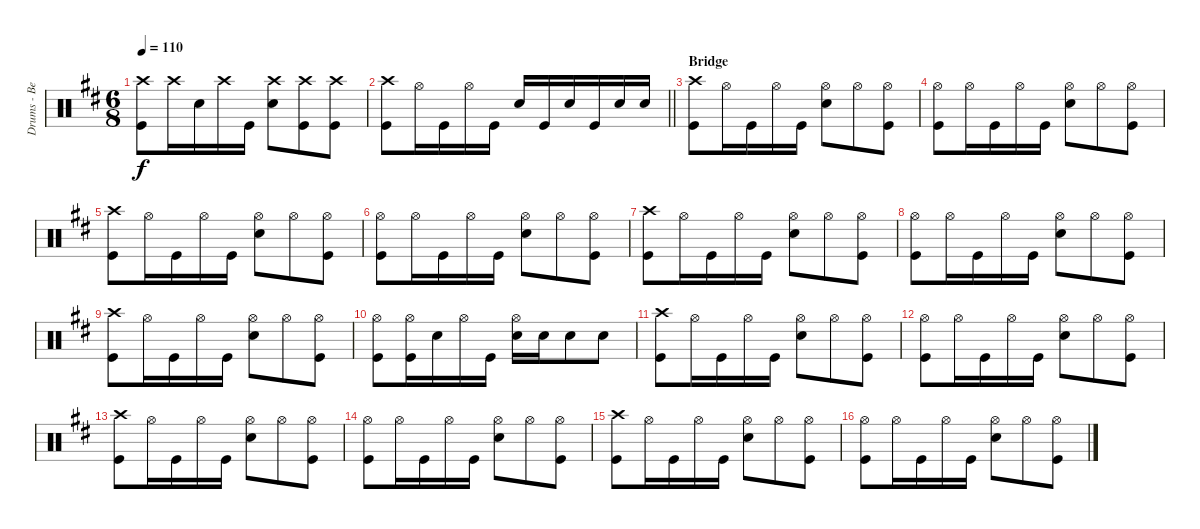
\track ("Drums - Ben Johnston" "Drums - Be") {instrument percussion}
\staff {score}
\articulation defaults
\ts (6 8)
\tempo 110
\clef neutral
\ks d
("Crash high (hit)" "Kick (hit)").8{dy f} "Crash high (hit)".16 "Snare (hit) 2".16 "Crash high (hit)".16 "Kick (hit)".16 ("Crash high (hit)" "Snare (hit) 2").8 ("Crash high (hit)" "Kick (hit)").8 ("Crash high (hit)" "Kick (hit)").8 |
\barLineRight lightlight
("Crash high (hit)" "Kick (hit)").8 "Hi-Hat (open)".16 "Kick (hit)".16 "Hi-Hat (open)".16 "Kick (hit)".16 "Snare (hit) 2".16 "Kick (hit)".16 "Snare (hit) 2".16 "Kick (hit)".16 "Snare (hit) 2".16 "Snare (hit) 2".16 |
\section ("" "Bridge")
("Crash high (hit)" "Kick (hit)").8 "Hi-Hat (open)".16 "Kick (hit)".16 "Hi-Hat (open)".16 "Kick (hit)".16 ("Hi-Hat (open)" "Snare (hit) 2").8 "Hi-Hat (open)".8 ("Hi-Hat (open)" "Kick (hit)").8 |
("Hi-Hat (open)" "Kick (hit)").8 "Hi-Hat (open)".16 "Kick (hit)".16 "Hi-Hat (open)".16 "Kick (hit)".16 ("Hi-Hat (open)" "Snare (hit) 2").8 "Hi-Hat (open)".8 ("Hi-Hat (open)" "Kick (hit)").8 |
("Crash high (hit)" "Kick (hit)").8 "Hi-Hat (open)".16 "Kick (hit)".16 "Hi-Hat (open)".16 "Kick (hit)".16 ("Hi-Hat (open)" "Snare (hit) 2").8 "Hi-Hat (open)".8 ("Hi-Hat (open)" "Kick (hit)").8 |
("Hi-Hat (open)" "Kick (hit)").8 "Hi-Hat (open)".16 "Kick (hit)".16 "Hi-Hat (open)".16 "Kick (hit)".16 ("Hi-Hat (open)" "Snare (hit) 2").8 "Hi-Hat (open)".8 ("Hi-Hat (open)" "Kick (hit)").8 |
("Crash high (hit)" "Kick (hit)").8 "Hi-Hat (open)".16 "Kick (hit)".16 "Hi-Hat (open)".16 "Kick (hit)".16 ("Hi-Hat (open)" "Snare (hit) 2").8 "Hi-Hat (open)".8 ("Hi-Hat (open)" "Kick (hit)").8 |
("Hi-Hat (open)" "Kick (hit)").8 "Hi-Hat (open)".16 "Kick (hit)".16 "Hi-Hat (open)".16 "Kick (hit)".16 ("Hi-Hat (open)" "Snare (hit) 2").8 "Hi-Hat (open)".8 ("Hi-Hat (open)" "Kick (hit)").8 |
("Crash high (hit)" "Kick (hit)").8 "Hi-Hat (open)".16 "Kick (hit)".16 "Hi-Hat (open)".16 "Kick (hit)".16 ("Hi-Hat (open)" "Snare (hit) 2").8 "Hi-Hat (open)".8 ("Hi-Hat (open)" "Kick (hit)").8 |
("Hi-Hat (open)" "Kick (hit)").8 ("Hi-Hat (open)" "Kick (hit)").16 "Snare (hit) 2".16 "Hi-Hat (open)".16 "Kick (hit)".16 ("Hi-Hat (open)" "Snare (hit) 2").16 "Snare (hit) 2".16 "Snare (hit) 2".8 "Snare (hit) 2".8 |
("Crash high (hit)" "Kick (hit)").8 "Hi-Hat (open)".16 "Kick (hit)".16 "Hi-Hat (open)".16 "Kick (hit)".16 ("Hi-Hat (open)" "Snare (hit) 2").8 "Hi-Hat (open)".8 ("Hi-Hat (open)" "Kick (hit)").8 |
("Hi-Hat (open)" "Kick (hit)").8 "Hi-Hat (open)".16 "Kick (hit)".16 "Hi-Hat (open)".16 "Kick (hit)".16 ("Hi-Hat (open)" "Snare (hit) 2").8 "Hi-Hat (open)".8 ("Hi-Hat (open)" "Kick (hit)").8 |
("Crash high (hit)" "Kick (hit)").8 "Hi-Hat (open)".16 "Kick (hit)".16 "Hi-Hat (open)".16 "Kick (hit)".16 ("Hi-Hat (open)" "Snare (hit) 2").8 "Hi-Hat (open)".8 ("Hi-Hat (open)" "Kick (hit)").8 |
("Hi-Hat (open)" "Kick (hit)").8 "Hi-Hat (open)".16 "Kick (hit)".16 "Hi-Hat (open)".16 "Kick (hit)".16 ("Hi-Hat (open)" "Snare (hit) 2").8 "Hi-Hat (open)".8 ("Hi-Hat (open)" "Kick (hit)").8 |
("Crash high (hit)" "Kick (hit)").8 "Hi-Hat (open)".16 "Kick (hit)".16 "Hi-Hat (open)".16 "Kick (hit)".16 ("Hi-Hat (open)" "Snare (hit) 2").8 "Hi-Hat (open)".8 ("Hi-Hat (open)" "Kick (hit)").8 |
("Hi-Hat (open)" "Kick (hit)").8 "Hi-Hat (open)".16 "Kick (hit)".16 "Hi-Hat (open)".16 "Kick (hit)".16 ("Hi-Hat (open)" "Snare (hit) 2").8 "Hi-Hat (open)".8 ("Hi-Hat (open)" "Kick (hit)").8
